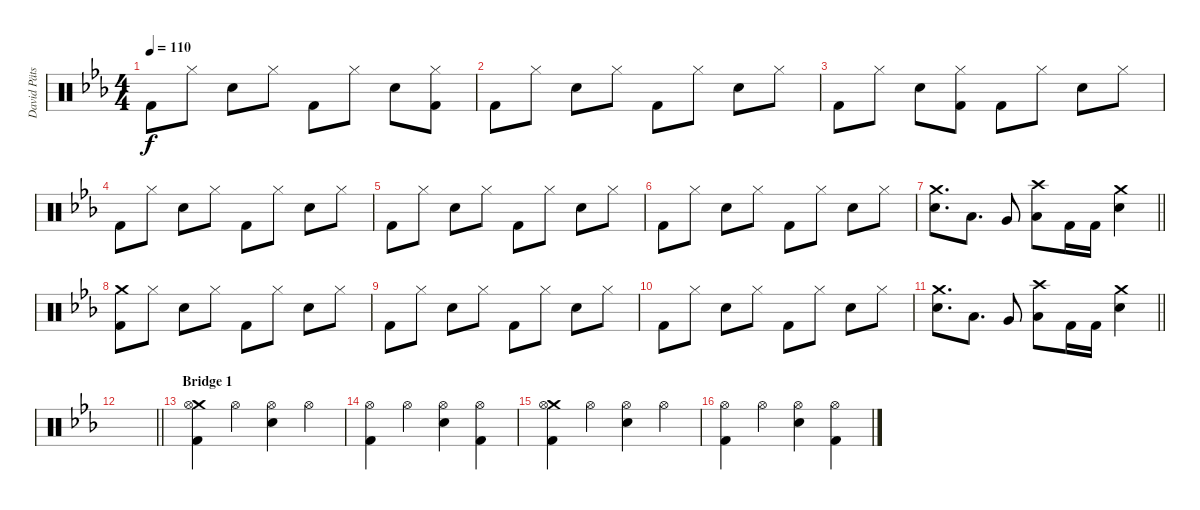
\track ("David Pätsch" "David Päts") {instrument percussion}
\staff {score}
\articulation defaults
\ts (4 4)
\tempo 110
\clef neutral
\ks cminor "Kick (hit) 2".8{dy f} "Hi-Hat (closed)".8 "Snare (hit) 2".8 "Hi-Hat (closed)".8 "Kick (hit) 2".8 "Hi-Hat (closed)".8 "Snare (hit) 2".8
("Kick (hit) 2" "Hi-Hat (closed)").8 |
"Kick (hit) 2".8 "Hi-Hat (closed)".8 "Snare (hit) 2".8 "Hi-Hat (closed)".8 "Kick (hit) 2".8 "Hi-Hat (closed)".8 "Snare (hit) 2".8 "Hi-Hat (closed)".8 |
"Kick (hit) 2".8 "Hi-Hat (closed)".8 "Snare (hit) 2".8 ("Kick (hit) 2" "Hi-Hat (closed)").8 "Kick (hit) 2".8 "Hi-Hat (closed)".8 "Snare (hit) 2".8 "Hi-Hat (closed)".8 |
"Kick (hit) 2".8 "Hi-Hat (closed)".8 "Snare (hit) 2".8 "Hi-Hat (closed)".8 "Kick (hit) 2".8 "Hi-Hat (closed)".8 "Snare (hit) 2".8 "Hi-Hat (closed)".8 |
"Kick (hit) 2".8 "Hi-Hat (closed)".8 "Snare (hit) 2".8 "Hi-Hat (closed)".8 "Kick (hit) 2".8 "Hi-Hat (closed)".8 "Snare (hit) 2".8 "Hi-Hat (closed)".8 |
"Kick (hit) 2".8 "Hi-Hat (closed)".8 "Snare (hit) 2".8 "Hi-Hat (closed)".8 "Kick (hit) 2".8 "Hi-Hat (closed)".8 "Snare (hit) 2".8 "Hi-Hat (closed)".8 |
\barLineRight lightlight
("Snare (hit) 2" "Crash medium (hit)").8{d} "Low Tom (hit)".8{d} "Very Low Tom (hit)".8 ("Crash high (hit)" "Low Floor Tom (hit)").8 "Kick (hit) 2".16 "Kick (hit) 2".16 ("Crash medium (hit)" "Snare (hit) 2").4 |
("Kick (hit) 2" "Crash medium (hit)").8 "Hi-Hat (closed)".8 "Snare (hit) 2".8 "Hi-Hat (closed)".8 "Kick (hit) 2".8 "Hi-Hat (closed)".8 "Snare (hit) 2".8 "Hi-Hat (closed)".8 |
"Kick (hit) 2".8 "Hi-Hat (closed)".8 "Snare (hit) 2".8 "Hi-Hat (closed)".8 "Kick (hit) 2".8 "Hi-Hat (closed)".8 "Snare (hit) 2".8 "Hi-Hat (closed)".8 |
"Kick (hit) 2".8 "Hi-Hat (closed)".8 "Snare (hit) 2".8 "Hi-Hat (closed)".8 "Kick (hit) 2".8 "Hi-Hat (closed)".8 "Snare (hit) 2".8 "Hi-Hat (closed)".8 |
\barLineRight lightlight
("Snare (hit) 2" "Crash medium (hit)").8{d} "Low Tom (hit)".8{d} "Very Low Tom (hit)".8 ("Crash high (hit)" "Low Floor Tom (hit)").8 "Kick (hit) 2".16 "Kick (hit) 2".16 ("Crash medium (hit)" "Snare (hit) 2").4 |
\barLineRight lightlight
|
\section ("" "Bridge 1")
("Crash medium (hit)" "Hi-Hat (open)" "Kick (hit) 2").4 "Hi-Hat (open)".4 ("Hi-Hat (open)" "Snare (hit) 2").4 "Hi-Hat (open)".4 |
("Hi-Hat (open)" "Kick (hit) 2").4 "Hi-Hat (open)".4 ("Hi-Hat (open)" "Snare (hit) 2").4 ("Hi-Hat (open)" "Kick (hit) 2").4 |
("Crash medium (hit)" "Hi-Hat (open)" "Kick (hit) 2").4 "Hi-Hat (open)".4 ("Hi-Hat (open)" "Snare (hit) 2").4 "Hi-Hat (open)".4 |
("Hi-Hat (open)" "Kick (hit) 2").4 "Hi-Hat (open)".4 ("Hi-Hat (open)" "Snare (hit) 2").4 ("Hi-Hat (open)" "Kick (hit) 2").4
